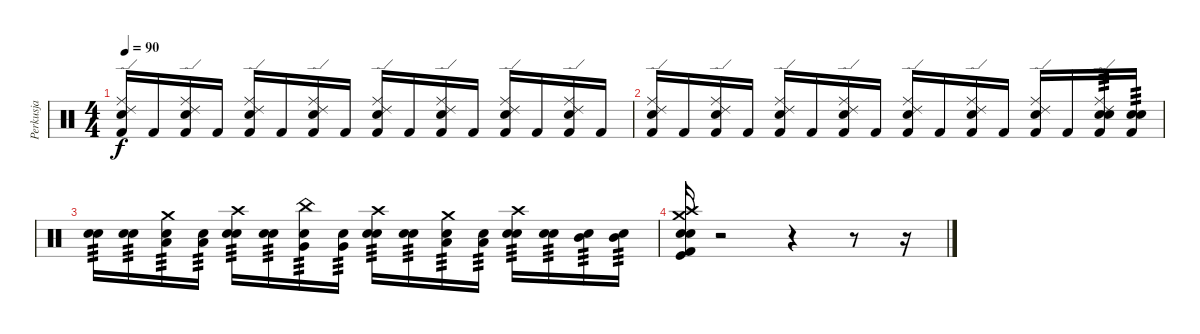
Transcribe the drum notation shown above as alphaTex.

\track ("Perkusja" "Perkusja") {instrument percussion}
\staff {score}
\articulation defaults
\ts (4 4)
\tempo 90
\clef neutral
\ks c
("Kick (hit) 2" "Ride (middle)" "Snare (hit) 2" "Ride (edge) 2").16{dy f} "Kick (hit) 2".16 ("Kick (hit) 2" "Ride (middle)" "Snare (hit) 2" "Ride (edge) 2").16 "Kick (hit) 2".16 ("Kick (hit) 2" "Ride (middle)" "Snare (hit) 2" "Ride (edge) 2").16 "Kick (hit) 2".16 ("Kick (hit) 2" "Ride (middle)" "Snare (hit) 2" "Ride (edge) 2").16 "Kick (hit) 2".16 ("Kick (hit) 2" "Ride (middle)" "Snare (hit) 2" "Ride (edge) 2").16 "Kick (hit) 2".16 ("Kick (hit) 2" "Ride (middle)" "Snare (hit) 2" "Ride (edge) 2").16 "Kick (hit) 2".16 ("Kick (hit) 2" "Ride (middle)" "Snare (hit) 2" "Ride (edge) 2").16 "Kick (hit) 2".16 ("Kick (hit) 2" "Ride (middle)" "Snare (hit) 2" "Ride (edge) 2").16 "Kick (hit) 2".16 |
("Kick (hit) 2" "Ride (middle)" "Snare (hit) 2" "Ride (edge) 2").16 "Kick (hit) 2".16 ("Kick (hit) 2" "Ride (middle)" "Snare (hit) 2" "Ride (edge) 2").16 "Kick (hit) 2".16 ("Kick (hit) 2" "Ride (middle)" "Snare (hit) 2" "Ride (edge) 2").16 "Kick (hit) 2".16 ("Kick (hit) 2" "Ride (middle)" "Snare (hit) 2" "Ride (edge) 2").16 "Kick (hit) 2".16 ("Kick (hit) 2" "Ride (middle)" "Snare (hit) 2" "Ride (edge) 2").16 "Kick (hit) 2".16 ("Kick (hit) 2" "Ride (middle)" "Snare (hit) 2" "Ride (edge) 2").16 "Kick (hit) 2".16 ("Kick (hit) 2" "Ride (middle)" "Snare (hit) 2" "Ride (edge) 2").16 "Kick (hit) 2".16 ("Kick (hit) 2" "Ride (middle)" "Snare (hit) 2" "Electric Snare (hit)" "Ride (edge) 2").16{tp 3} ("Kick (hit) 2" "Snare (hit) 2" "Electric Snare (hit)").16{tp 3} |
("Snare (hit) 2" "Electric Snare (hit)").16{tp 3} ("Snare (hit) 2" "Electric Snare (hit)").16{tp 3} ("Low Floor Tom (hit)" "Electric Snare (hit)" "Crash medium (hit)").16{tp 3} ("Low Floor Tom (hit)" "Electric Snare (hit)").16{tp 3} ("Snare (hit) 2" "Electric Snare (hit)" "Crash high (hit)").16{tp 3} ("Snare (hit) 2" "Electric Snare (hit)").16{tp 3} ("Very Low Tom (hit)" "Electric Snare (hit)" "China (hit)").16{tp 3} ("Very Low Tom (hit)" "Electric Snare (hit)").16{tp 3} ("Snare (hit) 2" "Electric Snare (hit)" "Crash high (hit)").16{tp 3} ("Snare (hit) 2" "Electric Snare (hit)").16{tp 3} ("Low Tom (hit)" "Electric Snare (hit)" "Crash medium (hit)").16{tp 3} ("Low Tom (hit)" "Electric Snare (hit)").16{tp 3} ("Snare (hit) 2" "Electric Snare (hit)" "Crash high (hit)").16{tp 3} ("Snare (hit) 2" "Electric Snare (hit)").16{tp 3} ("Mid Tom (hit)" "Electric Snare (hit)").16{tp 3} ("Mid Tom (hit)" "Electric Snare (hit)").16{tp 3} |
("Crash high (hit)" "Kick (hit) 2" "Snare (hit) 2" "Electric Snare (hit)" "Kick (hit)" "Crash medium (hit)").16 r.2 r.4 r.8 r.16
